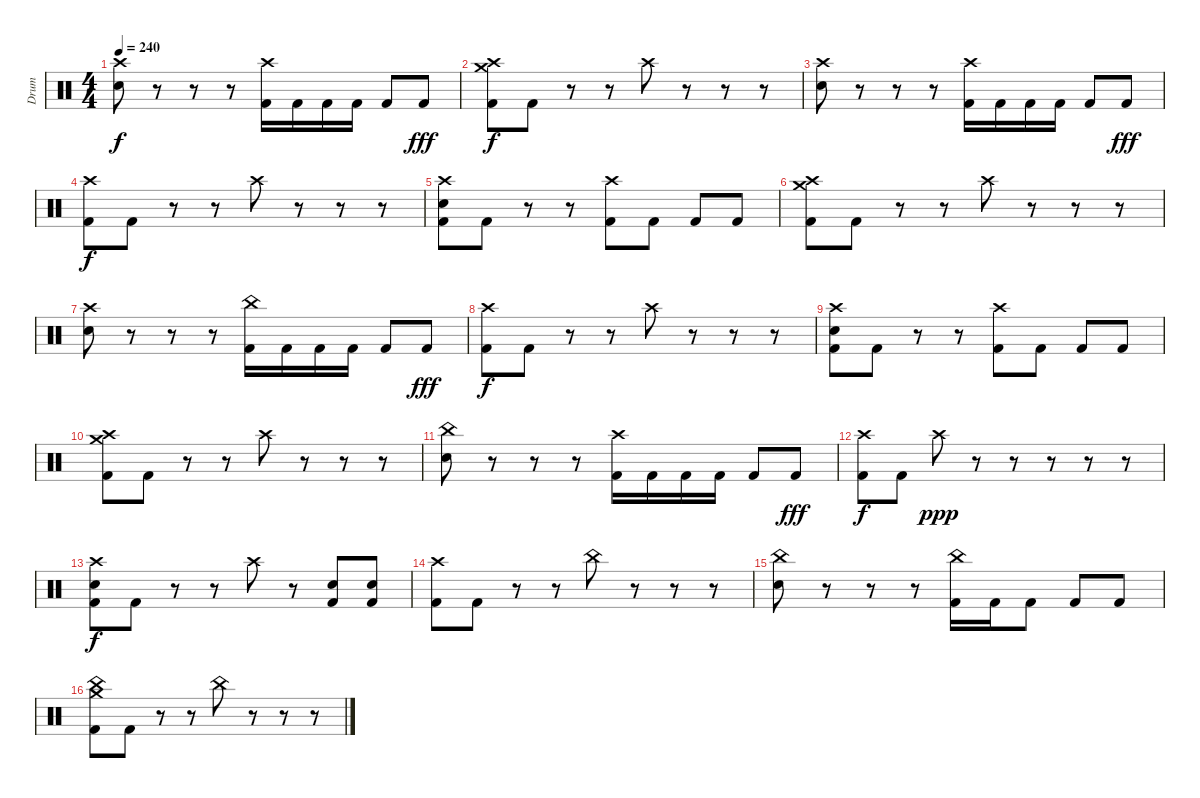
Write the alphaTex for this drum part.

\track ("Drum" "Drum") {instrument percussion}
\staff {score}
\articulation defaults
\ts (4 4)
\tempo 240
\clef neutral
\ks c
("Crash high (hit)" "Electric Snare (hit)").8{dy f} r.8 r.8 r.8 ("Crash high (hit)" "Kick (hit) 2").16 "Kick (hit) 2".16 "Kick (hit) 2".16 "Kick (hit) 2".16 "Kick (hit) 2".8 "Kick (hit) 2".8{dy fff} |
("Crash medium (hit)" "Crash high (hit)" "Kick (hit) 2").8{dy f} "Kick (hit) 2".8 r.8 r.8 "Crash high (hit)".8 r.8 r.8 r.8 |
("Crash high (hit)" "Electric Snare (hit)").8 r.8 r.8 r.8 ("Crash high (hit)" "Kick (hit) 2").16 "Kick (hit) 2".16 "Kick (hit) 2".16 "Kick (hit) 2".16 "Kick (hit) 2".8 "Kick (hit) 2".8{dy fff} |
("Crash high (hit)" "Kick (hit) 2").8{dy f} "Kick (hit) 2".8 r.8 r.8 "Crash high (hit)".8 r.8 r.8 r.8 |
("Crash high (hit)" "Electric Snare (hit)" "Kick (hit) 2").8 "Kick (hit) 2".8 r.8 r.8 ("Crash high (hit)" "Kick (hit) 2").8 "Kick (hit) 2".8 "Kick (hit) 2".8 "Kick (hit) 2".8 |
("Crash medium (hit)" "Crash high (hit)" "Kick (hit) 2").8 "Kick (hit) 2".8 r.8 r.8 "Crash high (hit)".8 r.8 r.8 r.8 |
("Crash high (hit)" "Electric Snare (hit)").8 r.8 r.8 r.8 ("China (hit)" "Kick (hit) 2").16 "Kick (hit) 2".16 "Kick (hit) 2".16 "Kick (hit) 2".16 "Kick (hit) 2".8 "Kick (hit) 2".8{dy fff} |
("Crash high (hit)" "Kick (hit) 2").8{dy f} "Kick (hit) 2".8 r.8 r.8 "Crash high (hit)".8 r.8 r.8 r.8 |
("Crash high (hit)" "Electric Snare (hit)" "Kick (hit) 2").8 "Kick (hit) 2".8 r.8 r.8 ("Crash high (hit)" "Kick (hit) 2").8 "Kick (hit) 2".8 "Kick (hit) 2".8 "Kick (hit) 2".8 |
("Crash high (hit)" "Crash medium (hit)" "Kick (hit) 2").8 "Kick (hit) 2".8 r.8 r.8 "Crash high (hit)".8 r.8 r.8 r.8 |
("China (hit)" "Electric Snare (hit)").8 r.8 r.8 r.8 ("Crash high (hit)" "Kick (hit) 2").16 "Kick (hit) 2".16 "Kick (hit) 2".16 "Kick (hit) 2".16 "Kick (hit) 2".8 "Kick (hit) 2".8{dy fff} |
("Crash high (hit)" "Kick (hit) 2").8{dy f} "Kick (hit) 2".8 "Crash high (hit)".8{dy ppp} r.8 r.8 r.8 r.8 r.8 |
("Crash high (hit)" "Electric Snare (hit)" "Kick (hit) 2").8{dy f} "Kick (hit) 2".8 r.8 r.8 "Crash high (hit)".8 r.8 ("Electric Snare (hit)" "Kick (hit) 2").8 ("Electric Snare (hit)" "Kick (hit) 2").8 |
("Crash high (hit)" "Kick (hit) 2").8 "Kick (hit) 2".8 r.8 r.8 "China (hit)".8 r.8 r.8 r.8 |
("China (hit)" "Electric Snare (hit)").8 r.8 r.8 r.8 ("China (hit)" "Kick (hit) 2").16 "Kick (hit) 2".16 "Kick (hit) 2".8 "Kick (hit) 2".8 "Kick (hit) 2".8 |
("Crash medium (hit)" "China (hit)" "Kick (hit) 2").8 "Kick (hit) 2".8 r.8 r.8 "China (hit)".8 r.8 r.8 r.8
